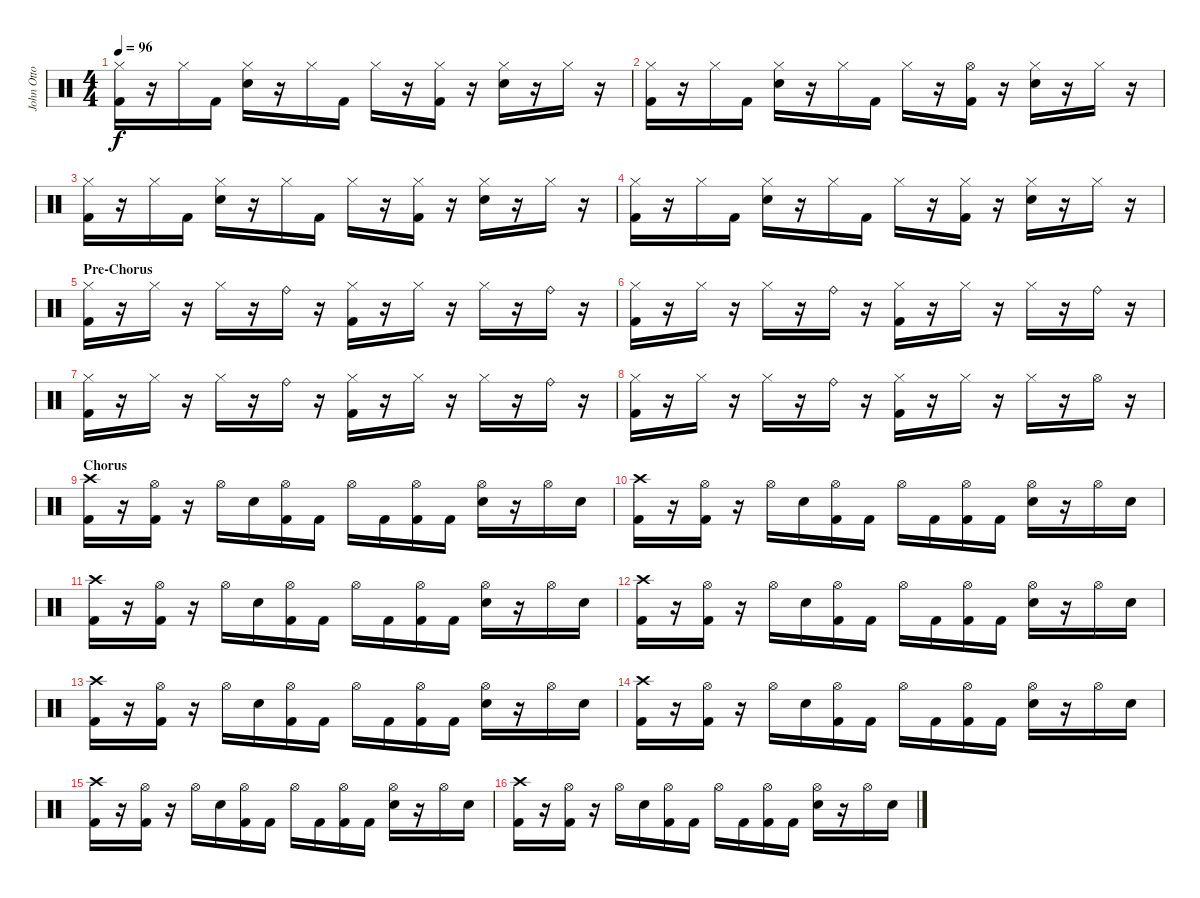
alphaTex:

\track ("John Otto" "John Otto") {instrument percussion}
\staff {score}
\articulation defaults
\ts (4 4)
\tempo 96
\clef neutral
\ks c
("Hi-Hat (closed)" "Kick (hit) 2").16{dy f} r.16 "Hi-Hat (closed)".16 "Kick (hit) 2".16 ("Hi-Hat (closed)" "Snare (hit) 2").16 r.16 "Hi-Hat (closed)".16 "Kick (hit) 2".16 "Hi-Hat (closed)".16 r.16 ("Hi-Hat (closed)" "Kick (hit) 2").16 r.16 ("Hi-Hat (closed)" "Snare (hit) 2").16 r.16 "Hi-Hat (closed)".16 r.16 |
("Hi-Hat (closed)" "Kick (hit) 2").16 r.16 "Hi-Hat (closed)".16 "Kick (hit) 2".16 ("Hi-Hat (closed)" "Snare (hit) 2").16 r.16 "Hi-Hat (closed)".16 "Kick (hit) 2".16 "Hi-Hat (closed)".16 r.16 ("Hi-Hat (open)" "Kick (hit) 2").16 r.16 ("Hi-Hat (closed)" "Snare (hit) 2").16 r.16 "Hi-Hat (closed)".16 r.16 |
("Hi-Hat (closed)" "Kick (hit) 2").16 r.16 "Hi-Hat (closed)".16 "Kick (hit) 2".16 ("Hi-Hat (closed)" "Snare (hit) 2").16 r.16 "Hi-Hat (closed)".16 "Kick (hit) 2".16 "Hi-Hat (closed)".16 r.16 ("Hi-Hat (closed)" "Kick (hit) 2").16 r.16 ("Hi-Hat (closed)" "Snare (hit) 2").16 r.16 "Hi-Hat (closed)".16 r.16 |
("Hi-Hat (closed)" "Kick (hit) 2").16 r.16 "Hi-Hat (closed)".16 "Kick (hit) 2".16 ("Hi-Hat (closed)" "Snare (hit) 2").16 r.16 "Hi-Hat (closed)".16 "Kick (hit) 2".16 "Hi-Hat (closed)".16 r.16 ("Hi-Hat (closed)" "Kick (hit) 2").16 r.16 ("Hi-Hat (closed)" "Snare (hit) 2").16 r.16 "Hi-Hat (closed)".16 r.16 |
\section ("" "Pre-Chorus")
("Hi-Hat (closed)" "Kick (hit) 2").16 r.16 "Hi-Hat (closed)".16 r.16 "Hi-Hat (closed)".16 r.16 "Ride (bell)".16 r.16 ("Hi-Hat (closed)" "Kick (hit) 2").16 r.16 "Hi-Hat (closed)".16 r.16 "Hi-Hat (closed)".16 r.16 "Ride (bell)".16 r.16 |
("Hi-Hat (closed)" "Kick (hit) 2").16 r.16 "Hi-Hat (closed)".16 r.16 "Hi-Hat (closed)".16 r.16 "Ride (bell)".16 r.16 ("Hi-Hat (closed)" "Kick (hit) 2").16 r.16 "Hi-Hat (closed)".16 r.16 "Hi-Hat (closed)".16 r.16 "Ride (bell)".16 r.16 |
("Hi-Hat (closed)" "Kick (hit) 2").16 r.16 "Hi-Hat (closed)".16 r.16 "Hi-Hat (closed)".16 r.16 "Ride (bell)".16 r.16 ("Hi-Hat (closed)" "Kick (hit) 2").16 r.16 "Hi-Hat (closed)".16 r.16 "Hi-Hat (closed)".16 r.16 "Ride (bell)".16 r.16 |
("Hi-Hat (closed)" "Kick (hit) 2").16 r.16 "Hi-Hat (closed)".16 r.16 "Hi-Hat (closed)".16 r.16 "Ride (bell)".16 r.16 ("Hi-Hat (closed)" "Kick (hit) 2").16 r.16 "Hi-Hat (closed)".16 r.16 "Hi-Hat (closed)".16 r.16 "Hi-Hat (open)".16 r.16 |
\section ("" "Chorus")
("Crash high (hit)" "Kick (hit) 2").16 r.16 ("Hi-Hat (open)" "Kick (hit) 2").16 r.16 "Hi-Hat (open)".16 "Snare (hit) 2".16 ("Hi-Hat (open)" "Kick (hit) 2").16 "Kick (hit) 2".16 "Hi-Hat (open)".16 "Kick (hit) 2".16 ("Hi-Hat (open)" "Kick (hit) 2").16 "Kick (hit) 2".16 ("Hi-Hat (open)" "Snare (hit) 2").16 r.16 "Hi-Hat (open)".16 "Snare (hit) 2".16 |
("Crash high (hit)" "Kick (hit) 2").16 r.16 ("Hi-Hat (open)" "Kick (hit) 2").16 r.16 "Hi-Hat (open)".16 "Snare (hit) 2".16 ("Hi-Hat (open)" "Kick (hit) 2").16 "Kick (hit) 2".16 "Hi-Hat (open)".16 "Kick (hit) 2".16 ("Hi-Hat (open)" "Kick (hit) 2").16 "Kick (hit) 2".16 ("Hi-Hat (open)" "Snare (hit) 2").16 r.16 "Hi-Hat (open)".16 "Snare (hit) 2".16 |
("Crash high (hit)" "Kick (hit) 2").16 r.16 ("Hi-Hat (open)" "Kick (hit) 2").16 r.16 "Hi-Hat (open)".16 "Snare (hit) 2".16 ("Hi-Hat (open)" "Kick (hit) 2").16 "Kick (hit) 2".16 "Hi-Hat (open)".16 "Kick (hit) 2".16 ("Hi-Hat (open)" "Kick (hit) 2").16 "Kick (hit) 2".16 ("Hi-Hat (open)" "Snare (hit) 2").16 r.16 "Hi-Hat (open)".16 "Snare (hit) 2".16 |
("Crash high (hit)" "Kick (hit) 2").16 r.16 ("Hi-Hat (open)" "Kick (hit) 2").16 r.16 "Hi-Hat (open)".16 "Snare (hit) 2".16 ("Hi-Hat (open)" "Kick (hit) 2").16 "Kick (hit) 2".16 "Hi-Hat (open)".16 "Kick (hit) 2".16 ("Hi-Hat (open)" "Kick (hit) 2").16 "Kick (hit) 2".16 ("Hi-Hat (open)" "Snare (hit) 2").16 r.16 "Hi-Hat (open)".16 "Snare (hit) 2".16 |
("Crash high (hit)" "Kick (hit) 2").16 r.16 ("Hi-Hat (open)" "Kick (hit) 2").16 r.16 "Hi-Hat (open)".16 "Snare (hit) 2".16 ("Hi-Hat (open)" "Kick (hit) 2").16 "Kick (hit) 2".16 "Hi-Hat (open)".16 "Kick (hit) 2".16 ("Hi-Hat (open)" "Kick (hit) 2").16 "Kick (hit) 2".16 ("Hi-Hat (open)" "Snare (hit) 2").16 r.16 "Hi-Hat (open)".16 "Snare (hit) 2".16 |
("Crash high (hit)" "Kick (hit) 2").16 r.16 ("Hi-Hat (open)" "Kick (hit) 2").16 r.16 "Hi-Hat (open)".16 "Snare (hit) 2".16 ("Hi-Hat (open)" "Kick (hit) 2").16 "Kick (hit) 2".16 "Hi-Hat (open)".16 "Kick (hit) 2".16 ("Hi-Hat (open)" "Kick (hit) 2").16 "Kick (hit) 2".16 ("Hi-Hat (open)" "Snare (hit) 2").16 r.16 "Hi-Hat (open)".16 "Snare (hit) 2".16 |
("Crash high (hit)" "Kick (hit) 2").16 r.16 ("Hi-Hat (open)" "Kick (hit) 2").16 r.16 "Hi-Hat (open)".16 "Snare (hit) 2".16 ("Hi-Hat (open)" "Kick (hit) 2").16 "Kick (hit) 2".16 "Hi-Hat (open)".16 "Kick (hit) 2".16 ("Hi-Hat (open)" "Kick (hit) 2").16 "Kick (hit) 2".16 ("Hi-Hat (open)" "Snare (hit) 2").16 r.16 "Hi-Hat (open)".16 "Snare (hit) 2".16 |
("Crash high (hit)" "Kick (hit) 2").16 r.16 ("Hi-Hat (open)" "Kick (hit) 2").16 r.16 "Hi-Hat (open)".16 "Snare (hit) 2".16 ("Hi-Hat (open)" "Kick (hit) 2").16 "Kick (hit) 2".16 "Hi-Hat (open)".16 "Kick (hit) 2".16 ("Hi-Hat (open)" "Kick (hit) 2").16 "Kick (hit) 2".16 ("Hi-Hat (open)" "Snare (hit) 2").16 r.16 "Hi-Hat (open)".16 "Snare (hit) 2".16
